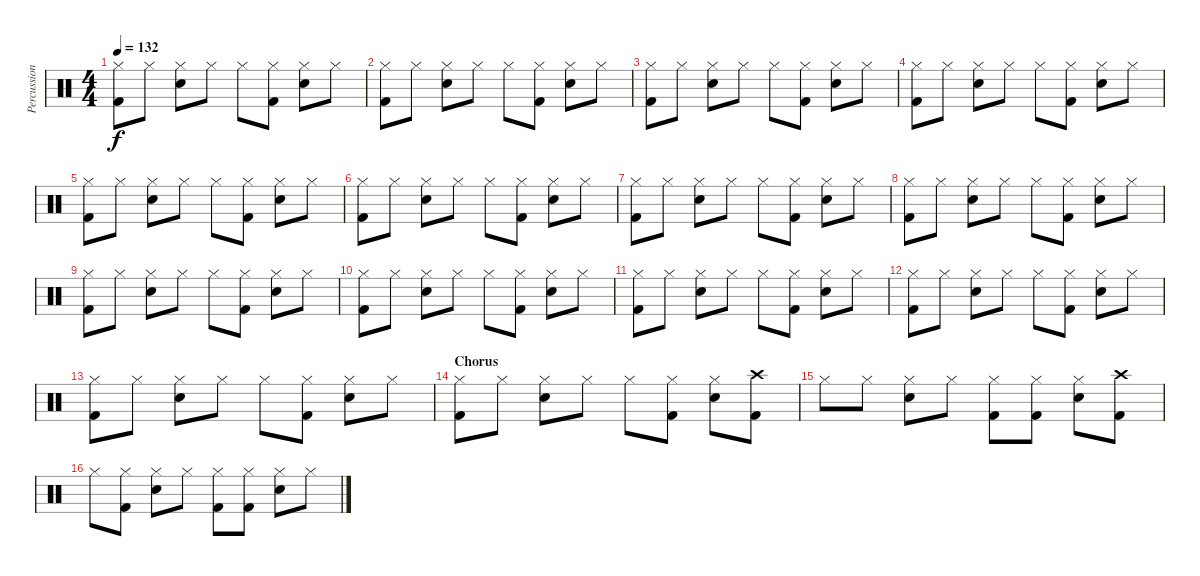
\track ("Percussion" "Percussion") {instrument percussion}
\staff {score}
\articulation defaults
\ts (4 4)
\tempo 132
\clef neutral
\ks c
("Hi-Hat (closed)" "Kick (hit) 2").8{dy f} "Hi-Hat (closed)".8 ("Hi-Hat (closed)" "Snare (hit) 2").8 "Hi-Hat (closed)".8 "Hi-Hat (closed)".8 ("Hi-Hat (closed)" "Kick (hit) 2").8 ("Hi-Hat (closed)" "Snare (hit) 2").8 "Hi-Hat (closed)".8 |
("Hi-Hat (closed)" "Kick (hit) 2").8 "Hi-Hat (closed)".8 ("Hi-Hat (closed)" "Snare (hit) 2").8 "Hi-Hat (closed)".8 "Hi-Hat (closed)".8 ("Hi-Hat (closed)" "Kick (hit) 2").8 ("Hi-Hat (closed)" "Snare (hit) 2").8 "Hi-Hat (closed)".8 |
("Hi-Hat (closed)" "Kick (hit) 2").8 "Hi-Hat (closed)".8 ("Hi-Hat (closed)" "Snare (hit) 2").8 "Hi-Hat (closed)".8 "Hi-Hat (closed)".8 ("Hi-Hat (closed)" "Kick (hit) 2").8 ("Hi-Hat (closed)" "Snare (hit) 2").8 "Hi-Hat (closed)".8 |
("Hi-Hat (closed)" "Kick (hit) 2").8 "Hi-Hat (closed)".8 ("Hi-Hat (closed)" "Snare (hit) 2").8 "Hi-Hat (closed)".8 "Hi-Hat (closed)".8 ("Hi-Hat (closed)" "Kick (hit) 2").8 ("Hi-Hat (closed)" "Snare (hit) 2").8 "Hi-Hat (closed)".8 |
("Hi-Hat (closed)" "Kick (hit) 2").8 "Hi-Hat (closed)".8 ("Hi-Hat (closed)" "Snare (hit) 2").8 "Hi-Hat (closed)".8 "Hi-Hat (closed)".8 ("Hi-Hat (closed)" "Kick (hit) 2").8 ("Hi-Hat (closed)" "Snare (hit) 2").8 "Hi-Hat (closed)".8 |
("Hi-Hat (closed)" "Kick (hit) 2").8 "Hi-Hat (closed)".8 ("Hi-Hat (closed)" "Snare (hit) 2").8 "Hi-Hat (closed)".8 "Hi-Hat (closed)".8 ("Hi-Hat (closed)" "Kick (hit) 2").8 ("Hi-Hat (closed)" "Snare (hit) 2").8 "Hi-Hat (closed)".8 |
("Hi-Hat (closed)" "Kick (hit) 2").8 "Hi-Hat (closed)".8 ("Hi-Hat (closed)" "Snare (hit) 2").8 "Hi-Hat (closed)".8 "Hi-Hat (closed)".8 ("Hi-Hat (closed)" "Kick (hit) 2").8 ("Hi-Hat (closed)" "Snare (hit) 2").8 "Hi-Hat (closed)".8 |
("Hi-Hat (closed)" "Kick (hit) 2").8 "Hi-Hat (closed)".8 ("Hi-Hat (closed)" "Snare (hit) 2").8 "Hi-Hat (closed)".8 "Hi-Hat (closed)".8 ("Hi-Hat (closed)" "Kick (hit) 2").8 ("Hi-Hat (closed)" "Snare (hit) 2").8 "Hi-Hat (closed)".8 |
("Hi-Hat (closed)" "Kick (hit) 2").8 "Hi-Hat (closed)".8 ("Hi-Hat (closed)" "Snare (hit) 2").8 "Hi-Hat (closed)".8 "Hi-Hat (closed)".8 ("Hi-Hat (closed)" "Kick (hit) 2").8 ("Hi-Hat (closed)" "Snare (hit) 2").8 "Hi-Hat (closed)".8 |
("Hi-Hat (closed)" "Kick (hit) 2").8 "Hi-Hat (closed)".8 ("Hi-Hat (closed)" "Snare (hit) 2").8 "Hi-Hat (closed)".8 "Hi-Hat (closed)".8 ("Hi-Hat (closed)" "Kick (hit) 2").8 ("Hi-Hat (closed)" "Snare (hit) 2").8 "Hi-Hat (closed)".8 |
("Hi-Hat (closed)" "Kick (hit) 2").8 "Hi-Hat (closed)".8 ("Hi-Hat (closed)" "Snare (hit) 2").8 "Hi-Hat (closed)".8 "Hi-Hat (closed)".8 ("Hi-Hat (closed)" "Kick (hit) 2").8 ("Hi-Hat (closed)" "Snare (hit) 2").8 "Hi-Hat (closed)".8 |
("Hi-Hat (closed)" "Kick (hit) 2").8 "Hi-Hat (closed)".8 ("Hi-Hat (closed)" "Snare (hit) 2").8 "Hi-Hat (closed)".8 "Hi-Hat (closed)".8 ("Hi-Hat (closed)" "Kick (hit) 2").8 ("Hi-Hat (closed)" "Snare (hit) 2").8 "Hi-Hat (closed)".8 |
("Hi-Hat (closed)" "Kick (hit) 2").8 "Hi-Hat (closed)".8 ("Hi-Hat (closed)" "Snare (hit) 2").8 "Hi-Hat (closed)".8 "Hi-Hat (closed)".8 ("Hi-Hat (closed)" "Kick (hit) 2").8 ("Hi-Hat (closed)" "Snare (hit) 2").8 "Hi-Hat (closed)".8 |
\section ("" "Chorus")
("Hi-Hat (closed)" "Kick (hit) 2").8 "Hi-Hat (closed)".8 ("Hi-Hat (closed)" "Snare (hit) 2").8 "Hi-Hat (closed)".8 "Hi-Hat (closed)".8 ("Hi-Hat (closed)" "Kick (hit) 2").8 ("Hi-Hat (closed)" "Snare (hit) 2").8 ("Crash high (hit)" "Kick (hit) 2").8 |
"Hi-Hat (closed)".8 "Hi-Hat (closed)".8 ("Hi-Hat (closed)" "Snare (hit) 2").8 "Hi-Hat (closed)".8 ("Hi-Hat (closed)" "Kick (hit) 2").8 ("Hi-Hat (closed)" "Kick (hit) 2").8 ("Hi-Hat (closed)" "Snare (hit) 2").8 ("Crash high (hit)" "Kick (hit) 2").8 |
"Hi-Hat (closed)".8 ("Hi-Hat (closed)" "Kick (hit) 2").8 ("Hi-Hat (closed)" "Snare (hit) 2").8 "Hi-Hat (closed)".8 ("Hi-Hat (closed)" "Kick (hit) 2").8 ("Hi-Hat (closed)" "Kick (hit) 2").8 ("Hi-Hat (closed)" "Snare (hit) 2").8 "Hi-Hat (closed)".8
